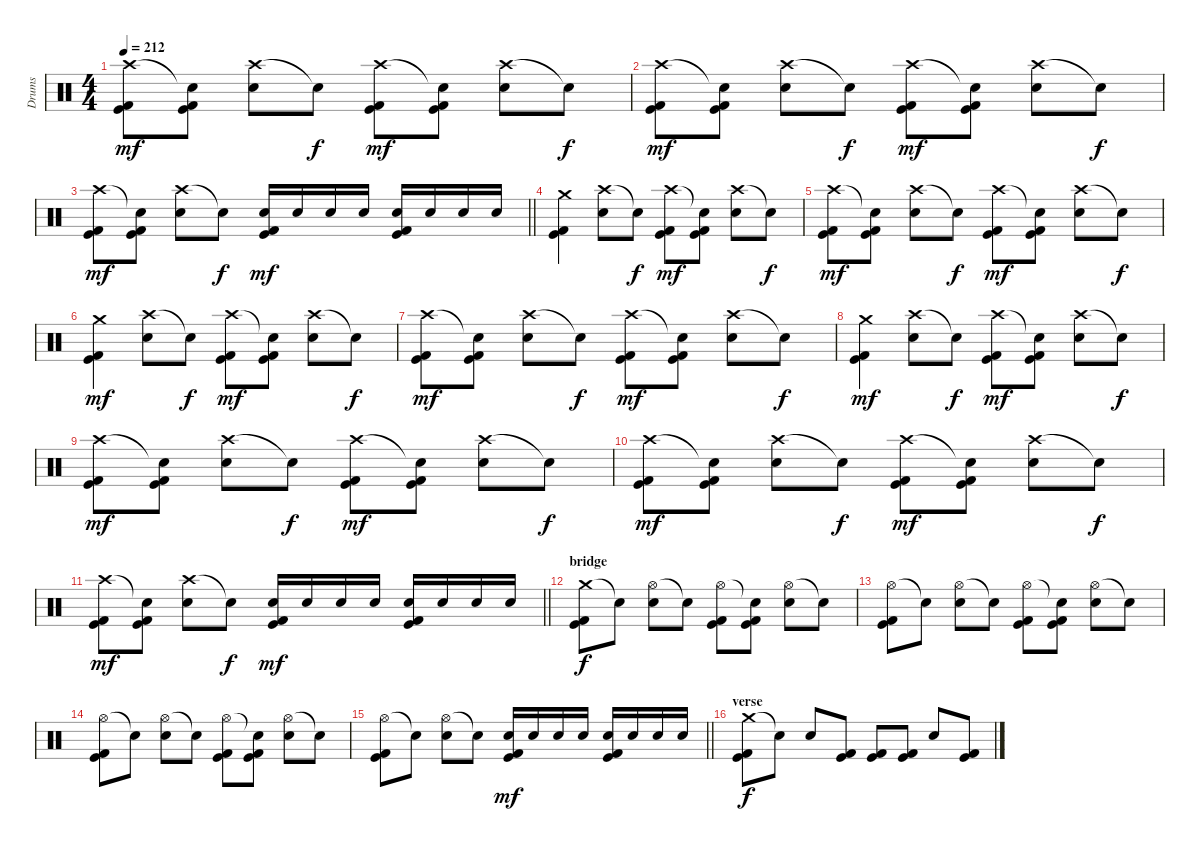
\track ("Drums" "Drums") {instrument percussion}
\staff {score}
\articulation defaults
\ts (4 4)
\tempo 212
\clef neutral
\ks c
("Crash high (hit)" "Kick (hit)" "Kick (hit) 2").8{dy mf} ("Snare (hit)"{t} "Kick (hit)" "Kick (hit) 2").8 ("Crash high (hit)" "Snare (hit) 2").8 "Snare (hit)"{t}.8{dy f} ("Crash high (hit)" "Kick (hit)" "Kick (hit) 2").8{dy mf} ("Snare (hit)"{t} "Kick (hit)" "Kick (hit) 2").8 ("Crash high (hit)" "Snare (hit) 2").8 "Snare (hit)"{t}.8{dy f} |
("Crash high (hit)" "Kick (hit)" "Kick (hit) 2").8{dy mf} ("Snare (hit)"{t} "Kick (hit)" "Kick (hit) 2").8 ("Crash high (hit)" "Snare (hit) 2").8 "Snare (hit)"{t}.8{dy f} ("Crash high (hit)" "Kick (hit)" "Kick (hit) 2").8{dy mf} ("Snare (hit)"{t} "Kick (hit)" "Kick (hit) 2").8 ("Crash high (hit)" "Snare (hit) 2").8 "Snare (hit)"{t}.8{dy f} |
\barLineRight lightlight
("Crash high (hit)" "Kick (hit)" "Kick (hit) 2").8{dy mf} ("Snare (hit)"{t} "Kick (hit)" "Kick (hit) 2").8 ("Crash high (hit)" "Snare (hit) 2").8 "Snare (hit)"{t}.8{dy f} ("Snare (hit) 2" "Kick (hit)" "Kick (hit) 2").16{dy mf} "Snare (hit) 2".16 "Snare (hit) 2".16 "Snare (hit) 2".16 ("Snare (hit) 2" "Kick (hit)" "Kick (hit) 2").16 "Snare (hit) 2".16 "Snare (hit) 2".16 "Snare (hit) 2".16 |
("Crash medium (hit)" "Kick (hit)" "Kick (hit) 2").4 ("Crash high (hit)" "Snare (hit) 2").8 "Snare (hit)"{t}.8{dy f} ("Crash high (hit)" "Kick (hit)" "Kick (hit) 2").8{dy mf} ("Snare (hit)"{t} "Kick (hit)" "Kick (hit) 2").8 ("Crash high (hit)" "Snare (hit) 2").8 "Snare (hit)"{t}.8{dy f} |
("Crash high (hit)" "Kick (hit)" "Kick (hit) 2").8{dy mf} ("Snare (hit)"{t} "Kick (hit)" "Kick (hit) 2").8 ("Crash high (hit)" "Snare (hit) 2").8 "Snare (hit)"{t}.8{dy f} ("Crash high (hit)" "Kick (hit)" "Kick (hit) 2").8{dy mf} ("Snare (hit)"{t} "Kick (hit)" "Kick (hit) 2").8 ("Crash high (hit)" "Snare (hit) 2").8 "Snare (hit)"{t}.8{dy f} |
("Crash medium (hit)" "Kick (hit)" "Kick (hit) 2").4{dy mf} ("Crash high (hit)" "Snare (hit) 2").8 "Snare (hit)"{t}.8{dy f} ("Crash high (hit)" "Kick (hit)" "Kick (hit) 2").8{dy mf} ("Snare (hit)"{t} "Kick (hit)" "Kick (hit) 2").8 ("Crash high (hit)" "Snare (hit) 2").8 "Snare (hit)"{t}.8{dy f} |
("Crash high (hit)" "Kick (hit)" "Kick (hit) 2").8{dy mf} ("Snare (hit)"{t} "Kick (hit)" "Kick (hit) 2").8 ("Crash high (hit)" "Snare (hit) 2").8 "Snare (hit)"{t}.8{dy f} ("Crash high (hit)" "Kick (hit)" "Kick (hit) 2").8{dy mf} ("Snare (hit)"{t} "Kick (hit)" "Kick (hit) 2").8 ("Crash high (hit)" "Snare (hit) 2").8 "Snare (hit)"{t}.8{dy f} |
("Crash medium (hit)" "Kick (hit)" "Kick (hit) 2").4{dy mf} ("Crash high (hit)" "Snare (hit) 2").8 "Snare (hit)"{t}.8{dy f} ("Crash high (hit)" "Kick (hit)" "Kick (hit) 2").8{dy mf} ("Snare (hit)"{t} "Kick (hit)" "Kick (hit) 2").8 ("Crash high (hit)" "Snare (hit) 2").8 "Snare (hit)"{t}.8{dy f} |
("Crash high (hit)" "Kick (hit)" "Kick (hit) 2").8{dy mf} ("Snare (hit)"{t} "Kick (hit)" "Kick (hit) 2").8 ("Crash high (hit)" "Snare (hit) 2").8 "Snare (hit)"{t}.8{dy f} ("Crash high (hit)" "Kick (hit)" "Kick (hit) 2").8{dy mf} ("Snare (hit)"{t} "Kick (hit)" "Kick (hit) 2").8 ("Crash high (hit)" "Snare (hit) 2").8 "Snare (hit)"{t}.8{dy f} |
("Crash high (hit)" "Kick (hit)" "Kick (hit) 2").8{dy mf} ("Snare (hit)"{t} "Kick (hit)" "Kick (hit) 2").8 ("Crash high (hit)" "Snare (hit) 2").8 "Snare (hit)"{t}.8{dy f} ("Crash high (hit)" "Kick (hit)" "Kick (hit) 2").8{dy mf} ("Snare (hit)"{t} "Kick (hit)" "Kick (hit) 2").8 ("Crash high (hit)" "Snare (hit) 2").8 "Snare (hit)"{t}.8{dy f} |
\barLineRight lightlight
("Crash high (hit)" "Kick (hit)" "Kick (hit) 2").8{dy mf} ("Snare (hit)"{t} "Kick (hit)" "Kick (hit) 2").8 ("Crash high (hit)" "Snare (hit) 2").8 "Snare (hit)"{t}.8{dy f} ("Snare (hit) 2" "Kick (hit)" "Kick (hit) 2").16{dy mf} "Snare (hit) 2".16 "Snare (hit) 2".16 "Snare (hit) 2".16 ("Snare (hit) 2" "Kick (hit)" "Kick (hit) 2").16 "Snare (hit) 2".16 "Snare (hit) 2".16 "Snare (hit) 2".16 |
\section ("" "bridge")
("Crash medium (hit)" "Kick (hit)" "Kick (hit) 2").8{dy f} "Snare (hit)"{t}.8 ("Hi-Hat (open)" "Snare (hit) 2").8 "Snare (hit)"{t}.8 ("Hi-Hat (open)" "Kick (hit)" "Kick (hit) 2").8 ("Snare (hit)"{t} "Kick (hit)" "Kick (hit) 2").8 ("Hi-Hat (open)" "Snare (hit) 2").8 "Snare (hit)"{t}.8 |
("Hi-Hat (open)" "Kick (hit)" "Kick (hit) 2").8 "Snare (hit)"{t}.8 ("Hi-Hat (open)" "Snare (hit) 2").8 "Snare (hit)"{t}.8 ("Hi-Hat (open)" "Kick (hit)" "Kick (hit) 2").8 ("Snare (hit)"{t} "Kick (hit)" "Kick (hit) 2").8 ("Hi-Hat (open)" "Snare (hit) 2").8 "Snare (hit)"{t}.8 |
("Hi-Hat (open)" "Kick (hit)" "Kick (hit) 2").8 "Snare (hit)"{t}.8 ("Hi-Hat (open)" "Snare (hit) 2").8 "Snare (hit)"{t}.8 ("Hi-Hat (open)" "Kick (hit)" "Kick (hit) 2").8 ("Snare (hit)"{t} "Kick (hit)" "Kick (hit) 2").8 ("Hi-Hat (open)" "Snare (hit) 2").8 "Snare (hit)"{t}.8 |
\barLineRight lightlight
("Hi-Hat (open)" "Kick (hit)" "Kick (hit) 2").8 "Snare (hit)"{t}.8 ("Hi-Hat (open)" "Snare (hit) 2").8 "Snare (hit)"{t}.8 ("Snare (hit) 2" "Kick (hit)" "Kick (hit) 2").16{dy mf} "Snare (hit) 2".16 "Snare (hit) 2".16 "Snare (hit) 2".16 ("Snare (hit) 2" "Kick (hit)" "Kick (hit) 2").16 "Snare (hit) 2".16 "Snare (hit) 2".16 "Snare (hit) 2".16 |
\section ("" "verse")
("Crash medium (hit)" "Kick (hit)" "Kick (hit) 2").8{dy f} "Snare (hit)"{t}.8 "Snare (hit) 2".8 ("Kick (hit)" "Kick (hit) 2").8 ("Kick (hit)" "Kick (hit) 2").8 ("Kick (hit)" "Kick (hit) 2").8 "Snare (hit) 2".8 ("Kick (hit)" "Kick (hit) 2").8
